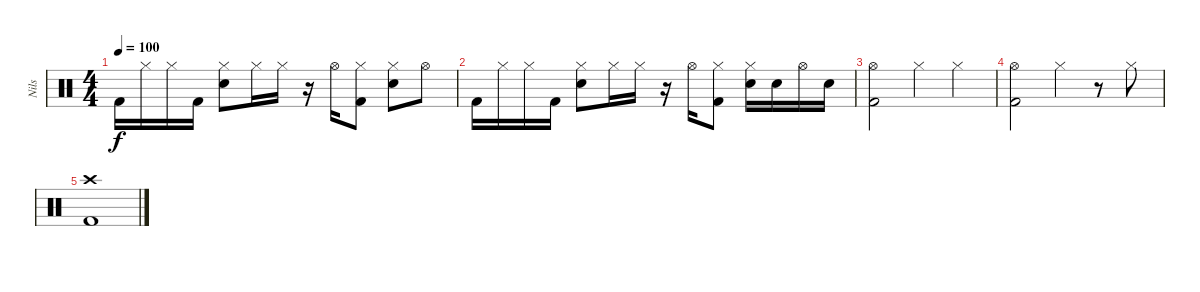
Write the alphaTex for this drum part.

\track ("Nils" "Nils") {instrument percussion}
\staff {score}
\articulation defaults
\ts (4 4)
\tempo 100
\clef neutral
\ks c "Kick (hit) 2".16{dy f} "Hi-Hat (closed)".16 "Hi-Hat (closed)".16 "Kick (hit) 2".16
("Hi-Hat (closed)" "Snare (hit) 2").8 "Hi-Hat (closed)".16 "Hi-Hat (closed)".16 r.16 "Hi-Hat (open)".16 ("Hi-Hat (closed)" "Kick (hit) 2").8 ("Hi-Hat (closed)" "Snare (hit) 2").8 "Hi-Hat (open)".8 |
"Kick (hit) 2".16 "Hi-Hat (closed)".16 "Hi-Hat (closed)".16 "Kick (hit) 2".16 ("Hi-Hat (closed)" "Snare (hit) 2").8 "Hi-Hat (closed)".16 "Hi-Hat (closed)".16 r.16 "Hi-Hat (open)".16 ("Hi-Hat (closed)" "Kick (hit) 2").8 ("Hi-Hat (closed)" "Snare (hit) 2").16 "Snare (hit) 2".16 "Hi-Hat (open)".16 "Snare (hit) 2".16 |
("Hi-Hat (open)" "Kick (hit) 2").2 "Hi-Hat (closed)".4 "Hi-Hat (closed)".4 |
("Hi-Hat (open)" "Kick (hit) 2").2 "Hi-Hat (closed)".4 r.8 "Hi-Hat (closed)".8 |
("Kick (hit) 2" "Crash high (hit)").1
